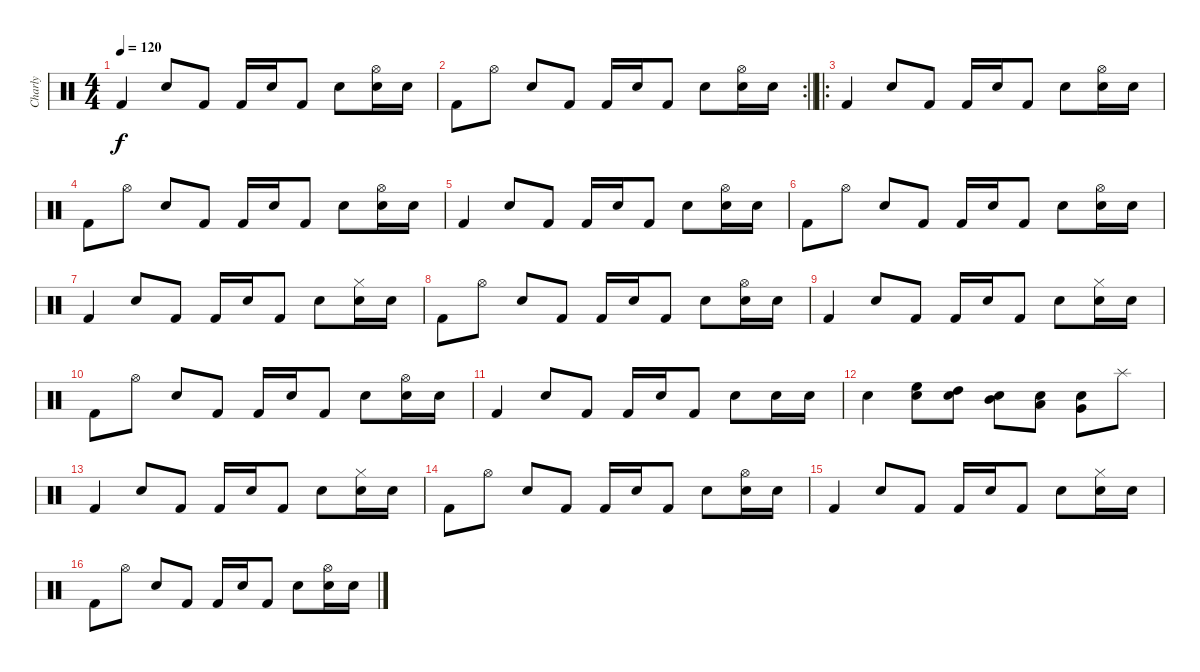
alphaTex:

\track ("Charly" "Charly") {instrument percussion}
\staff {score}
\articulation defaults
\ts (4 4)
\tempo 120
\clef neutral
\ks c "Kick (hit) 2".4{dy f} "Snare (hit) 2".8 "Kick (hit) 2".8 "Kick (hit) 2".16 "Snare (hit) 2".16 "Kick (hit) 2".8 "Snare (hit) 2".8
("Hi-Hat (open)" "Snare (hit) 2").16 "Snare (hit) 2".16 |
\rc 2
\barLineRight lightlight "Kick (hit) 2".8 "Hi-Hat (open)".8 "Snare (hit) 2".8 "Kick (hit) 2".8 "Kick (hit) 2".16 "Snare (hit) 2".16 "Kick (hit) 2".8 "Snare (hit) 2".8
("Hi-Hat (open)" "Snare (hit) 2").16 "Snare (hit) 2".16 |
\ro "Kick (hit) 2".4 "Snare (hit) 2".8 "Kick (hit) 2".8 "Kick (hit) 2".16 "Snare (hit) 2".16 "Kick (hit) 2".8 "Snare (hit) 2".8
("Hi-Hat (open)" "Snare (hit) 2").16 "Snare (hit) 2".16 |
"Kick (hit) 2".8 "Hi-Hat (open)".8 "Snare (hit) 2".8 "Kick (hit) 2".8 "Kick (hit) 2".16 "Snare (hit) 2".16 "Kick (hit) 2".8 "Snare (hit) 2".8 ("Hi-Hat (open)" "Snare (hit) 2").16 "Snare (hit) 2".16 |
"Kick (hit) 2".4 "Snare (hit) 2".8 "Kick (hit) 2".8 "Kick (hit) 2".16 "Snare (hit) 2".16 "Kick (hit) 2".8 "Snare (hit) 2".8 ("Hi-Hat (open)" "Snare (hit) 2").16 "Snare (hit) 2".16 |
"Kick (hit) 2".8 "Hi-Hat (open)".8 "Snare (hit) 2".8 "Kick (hit) 2".8 "Kick (hit) 2".16 "Snare (hit) 2".16 "Kick (hit) 2".8 "Snare (hit) 2".8 ("Hi-Hat (open)" "Snare (hit) 2").16 "Snare (hit) 2".16 |
"Kick (hit) 2".4 "Snare (hit) 2".8 "Kick (hit) 2".8 "Kick (hit) 2".16 "Snare (hit) 2".16 "Kick (hit) 2".8 "Snare (hit) 2".8 ("Hi-Hat (closed)" "Snare (hit) 2").16 "Snare (hit) 2".16 |
"Kick (hit) 2".8 "Hi-Hat (open)".8 "Snare (hit) 2".8 "Kick (hit) 2".8 "Kick (hit) 2".16 "Snare (hit) 2".16 "Kick (hit) 2".8 "Snare (hit) 2".8 ("Hi-Hat (open)" "Snare (hit) 2").16 "Snare (hit) 2".16 |
"Kick (hit) 2".4 "Snare (hit) 2".8 "Kick (hit) 2".8 "Kick (hit) 2".16 "Snare (hit) 2".16 "Kick (hit) 2".8 "Snare (hit) 2".8 ("Hi-Hat (closed)" "Snare (hit) 2").16 "Snare (hit) 2".16 |
"Kick (hit) 2".8 "Hi-Hat (open)".8 "Snare (hit) 2".8 "Kick (hit) 2".8 "Kick (hit) 2".16 "Snare (hit) 2".16 "Kick (hit) 2".8 "Snare (hit) 2".8 ("Hi-Hat (open)" "Snare (hit) 2").16 "Snare (hit) 2".16 |
"Kick (hit) 2".4 "Snare (hit) 2".8 "Kick (hit) 2".8 "Kick (hit) 2".16 "Snare (hit) 2".16 "Kick (hit) 2".8 "Snare (hit) 2".8 "Snare (hit) 2".16 "Snare (hit) 2".16 |
"Snare (hit) 2".4 ("High Floor Tom (hit)" "Snare (hit) 2").8 ("High Tom (hit)" "Snare (hit) 2").8 ("Mid Tom (hit)" "Snare (hit) 2").8 ("Low Tom (hit)" "Snare (hit) 2").8 ("Very Low Tom (hit)" "Snare (hit) 2").8 "Splash (hit)".8 |
"Kick (hit) 2".4 "Snare (hit) 2".8 "Kick (hit) 2".8 "Kick (hit) 2".16 "Snare (hit) 2".16 "Kick (hit) 2".8 "Snare (hit) 2".8 ("Hi-Hat (closed)" "Snare (hit) 2").16 "Snare (hit) 2".16 |
"Kick (hit) 2".8 "Hi-Hat (open)".8 "Snare (hit) 2".8 "Kick (hit) 2".8 "Kick (hit) 2".16 "Snare (hit) 2".16 "Kick (hit) 2".8 "Snare (hit) 2".8 ("Hi-Hat (open)" "Snare (hit) 2").16 "Snare (hit) 2".16 |
"Kick (hit) 2".4 "Snare (hit) 2".8 "Kick (hit) 2".8 "Kick (hit) 2".16 "Snare (hit) 2".16 "Kick (hit) 2".8 "Snare (hit) 2".8 ("Hi-Hat (closed)" "Snare (hit) 2").16 "Snare (hit) 2".16 |
"Kick (hit) 2".8 "Hi-Hat (open)".8 "Snare (hit) 2".8 "Kick (hit) 2".8 "Kick (hit) 2".16 "Snare (hit) 2".16 "Kick (hit) 2".8 "Snare (hit) 2".8 ("Hi-Hat (open)" "Snare (hit) 2").16 "Snare (hit) 2".16
